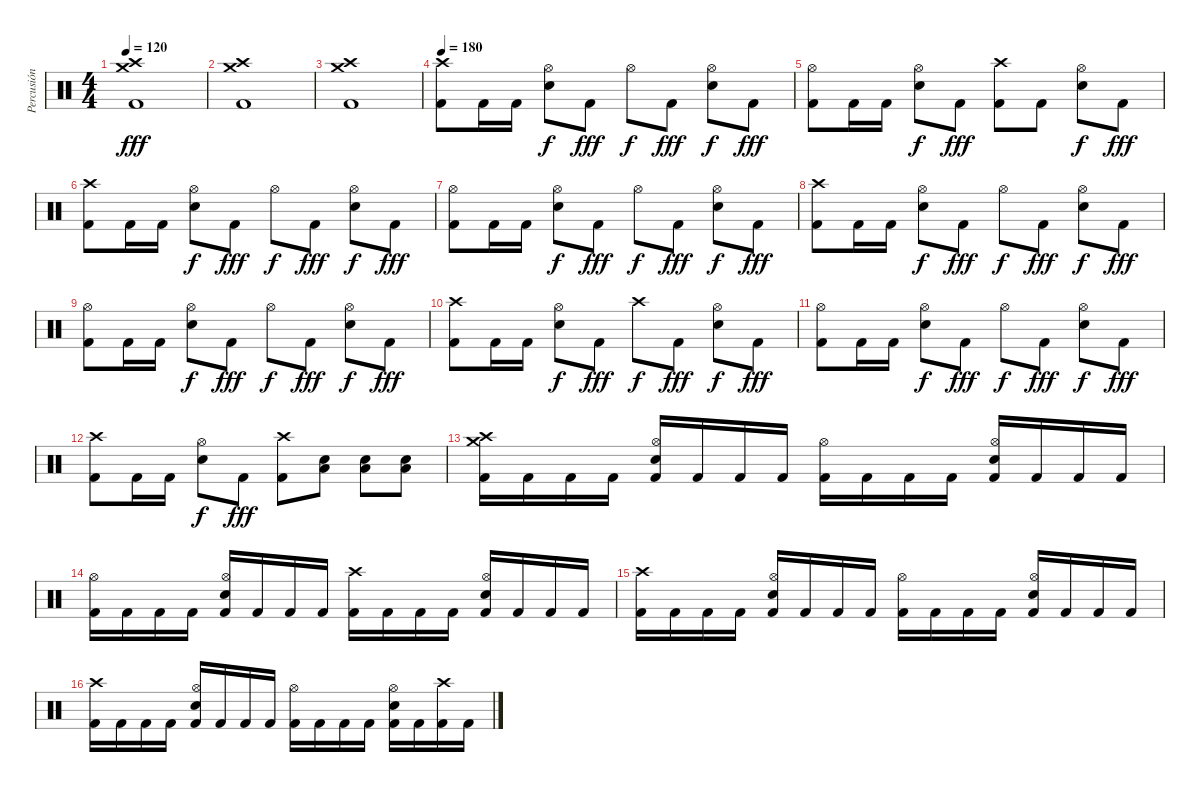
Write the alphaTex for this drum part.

\track ("Percusión" "Percusión") {instrument percussion}
\staff {score}
\articulation defaults
\ts (4 4)
\tempo 120
\clef neutral
\ks c
("Crash medium (hit)" "Crash high (hit)" "Kick (hit) 2").1{dy fff} |
("Crash medium (hit)" "Crash high (hit)" "Kick (hit) 2").1 |
("Crash medium (hit)" "Crash high (hit)" "Kick (hit) 2").1 |
\tempo 180
("Crash high (hit)" "Kick (hit) 2").8 "Kick (hit) 2".16 "Kick (hit) 2".16 ("Hi-Hat (open)" "Electric Snare (hit)").8{dy f} "Kick (hit) 2".8{dy fff} "Hi-Hat (open)".8{dy f} "Kick (hit) 2".8{dy fff} ("Hi-Hat (open)" "Electric Snare (hit)").8{dy f} "Kick (hit) 2".8{dy fff} |
("Hi-Hat (open)" "Kick (hit) 2").8 "Kick (hit) 2".16 "Kick (hit) 2".16 ("Hi-Hat (open)" "Electric Snare (hit)").8{dy f} "Kick (hit) 2".8{dy fff} ("Crash high (hit)" "Kick (hit) 2").8 "Kick (hit) 2".8 ("Hi-Hat (open)" "Electric Snare (hit)").8{dy f} "Kick (hit) 2".8{dy fff} |
("Crash high (hit)" "Kick (hit) 2").8 "Kick (hit) 2".16 "Kick (hit) 2".16 ("Hi-Hat (open)" "Electric Snare (hit)").8{dy f} "Kick (hit) 2".8{dy fff} "Hi-Hat (open)".8{dy f} "Kick (hit) 2".8{dy fff} ("Hi-Hat (open)" "Electric Snare (hit)").8{dy f} "Kick (hit) 2".8{dy fff} |
("Hi-Hat (open)" "Kick (hit) 2").8 "Kick (hit) 2".16 "Kick (hit) 2".16 ("Hi-Hat (open)" "Electric Snare (hit)").8{dy f} "Kick (hit) 2".8{dy fff} "Hi-Hat (open)".8{dy f} "Kick (hit) 2".8{dy fff} ("Hi-Hat (open)" "Electric Snare (hit)").8{dy f} "Kick (hit) 2".8{dy fff} |
("Crash high (hit)" "Kick (hit) 2").8 "Kick (hit) 2".16 "Kick (hit) 2".16 ("Hi-Hat (open)" "Electric Snare (hit)").8{dy f} "Kick (hit) 2".8{dy fff} "Hi-Hat (open)".8{dy f} "Kick (hit) 2".8{dy fff} ("Hi-Hat (open)" "Electric Snare (hit)").8{dy f} "Kick (hit) 2".8{dy fff} |
("Hi-Hat (open)" "Kick (hit) 2").8 "Kick (hit) 2".16 "Kick (hit) 2".16 ("Hi-Hat (open)" "Electric Snare (hit)").8{dy f} "Kick (hit) 2".8{dy fff} "Hi-Hat (open)".8{dy f} "Kick (hit) 2".8{dy fff} ("Hi-Hat (open)" "Electric Snare (hit)").8{dy f} "Kick (hit) 2".8{dy fff} |
("Crash high (hit)" "Kick (hit) 2").8 "Kick (hit) 2".16 "Kick (hit) 2".16 ("Hi-Hat (open)" "Electric Snare (hit)").8{dy f} "Kick (hit) 2".8{dy fff} "Crash high (hit)".8{dy f} "Kick (hit) 2".8{dy fff} ("Hi-Hat (open)" "Electric Snare (hit)").8{dy f} "Kick (hit) 2".8{dy fff} |
("Hi-Hat (open)" "Kick (hit) 2").8 "Kick (hit) 2".16 "Kick (hit) 2".16 ("Hi-Hat (open)" "Electric Snare (hit)").8{dy f} "Kick (hit) 2".8{dy fff} "Hi-Hat (open)".8{dy f} "Kick (hit) 2".8{dy fff} ("Hi-Hat (open)" "Electric Snare (hit)").8{dy f} "Kick (hit) 2".8{dy fff} |
("Crash high (hit)" "Kick (hit) 2").8 "Kick (hit) 2".16 "Kick (hit) 2".16 ("Hi-Hat (open)" "Electric Snare (hit)").8{dy f} "Kick (hit) 2".8{dy fff} ("Crash high (hit)" "Kick (hit) 2").8 ("Low Floor Tom (hit)" "Electric Snare (hit)").8 ("Low Floor Tom (hit)" "Electric Snare (hit)").8 ("Low Floor Tom (hit)" "Electric Snare (hit)").8 |
("Crash medium (hit)" "Crash high (hit)" "Kick (hit) 2").16 "Kick (hit) 2".16 "Kick (hit) 2".16 "Kick (hit) 2".16 ("Hi-Hat (open)" "Electric Snare (hit)" "Kick (hit) 2").16 "Kick (hit) 2".16 "Kick (hit) 2".16 "Kick (hit) 2".16 ("Hi-Hat (open)" "Kick (hit) 2").16 "Kick (hit) 2".16 "Kick (hit) 2".16 "Kick (hit) 2".16 ("Hi-Hat (open)" "Electric Snare (hit)" "Kick (hit) 2").16 "Kick (hit) 2".16 "Kick (hit) 2".16 "Kick (hit) 2".16 |
("Hi-Hat (open)" "Kick (hit) 2").16 "Kick (hit) 2".16 "Kick (hit) 2".16 "Kick (hit) 2".16 ("Hi-Hat (open)" "Electric Snare (hit)" "Kick (hit) 2").16 "Kick (hit) 2".16 "Kick (hit) 2".16 "Kick (hit) 2".16 ("Crash high (hit)" "Kick (hit) 2").16 "Kick (hit) 2".16 "Kick (hit) 2".16 "Kick (hit) 2".16 ("Hi-Hat (open)" "Electric Snare (hit)" "Kick (hit) 2").16 "Kick (hit) 2".16 "Kick (hit) 2".16 "Kick (hit) 2".16 |
("Crash high (hit)" "Kick (hit) 2").16 "Kick (hit) 2".16 "Kick (hit) 2".16 "Kick (hit) 2".16 ("Hi-Hat (open)" "Electric Snare (hit)" "Kick (hit) 2").16 "Kick (hit) 2".16 "Kick (hit) 2".16 "Kick (hit) 2".16 ("Hi-Hat (open)" "Kick (hit) 2").16 "Kick (hit) 2".16 "Kick (hit) 2".16 "Kick (hit) 2".16 ("Hi-Hat (open)" "Electric Snare (hit)" "Kick (hit) 2").16 "Kick (hit) 2".16 "Kick (hit) 2".16 "Kick (hit) 2".16 |
("Crash high (hit)" "Kick (hit) 2").16 "Kick (hit) 2".16 "Kick (hit) 2".16 "Kick (hit) 2".16 ("Hi-Hat (open)" "Electric Snare (hit)" "Kick (hit) 2").16 "Kick (hit) 2".16 "Kick (hit) 2".16 "Kick (hit) 2".16 ("Hi-Hat (open)" "Kick (hit) 2").16 "Kick (hit) 2".16 "Kick (hit) 2".16 "Kick (hit) 2".16 ("Hi-Hat (open)" "Electric Snare (hit)" "Kick (hit) 2").16 "Kick (hit) 2".16 ("Crash high (hit)" "Kick (hit) 2").16 "Kick (hit) 2".16
